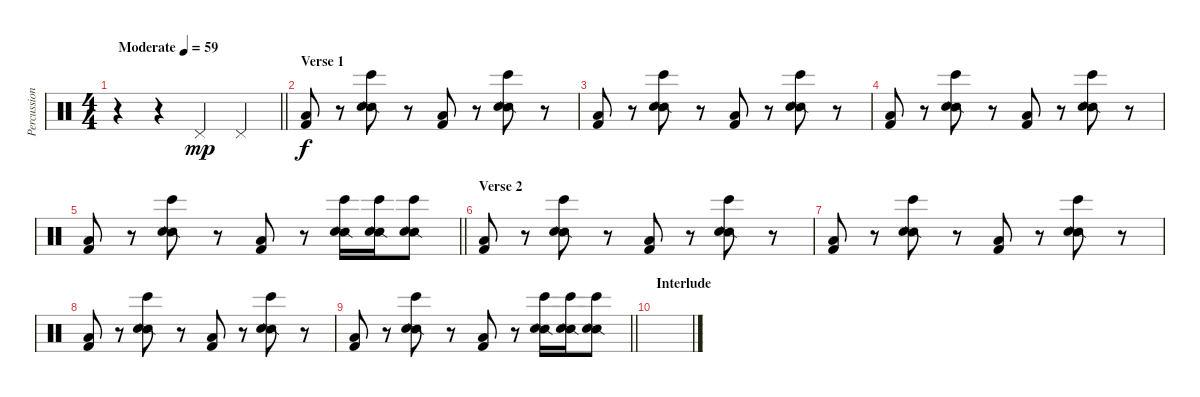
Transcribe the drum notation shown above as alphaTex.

\track ("Percussion" "Percussion") {instrument percussion}
\staff {score}
\articulation defaults
\ts (4 4)
\tempo (59 "Moderate")
\clef neutral
\barLineRight lightlight
\ks c
r.4{dy mp} r.4 "Pedal Hi-Hat (hit)".4 "Pedal Hi-Hat (hit)".4 |
\section ("" "Verse 1")
("Low Floor Tom (hit)" "Kick (hit) 2").8{dy f} r.8 ("Bongo High (hit)" "Snare (side stick) 2" "Hand Clap (hit)").8 r.8 ("Low Floor Tom (hit)" "Kick (hit) 2").8 r.8 ("Bongo High (hit)" "Snare (side stick) 2" "Hand Clap (hit)").8 r.8 |
("Low Floor Tom (hit)" "Kick (hit) 2").8 r.8 ("Bongo High (hit)" "Snare (side stick) 2" "Hand Clap (hit)").8 r.8 ("Low Floor Tom (hit)" "Kick (hit) 2").8 r.8 ("Bongo High (hit)" "Snare (side stick) 2" "Hand Clap (hit)").8 r.8 |
("Low Floor Tom (hit)" "Kick (hit) 2").8 r.8 ("Bongo High (hit)" "Snare (side stick) 2" "Hand Clap (hit)").8 r.8 ("Low Floor Tom (hit)" "Kick (hit) 2").8 r.8 ("Bongo High (hit)" "Snare (side stick) 2" "Hand Clap (hit)").8 r.8 |
\barLineRight lightlight
("Low Floor Tom (hit)" "Kick (hit) 2").8 r.8 ("Bongo High (hit)" "Snare (side stick) 2" "Hand Clap (hit)").8 r.8 ("Low Floor Tom (hit)" "Kick (hit) 2").8 r.8 ("Bongo High (hit)" "Snare (side stick) 2" "Hand Clap (hit)").16 ("Bongo High (hit)" "Snare (side stick) 2" "Hand Clap (hit)").16 ("Bongo High (hit)" "Snare (side stick) 2" "Hand Clap (hit)").8 |
\section ("" "Verse 2")
("Low Floor Tom (hit)" "Kick (hit) 2").8 r.8 ("Bongo High (hit)" "Snare (side stick) 2" "Hand Clap (hit)").8 r.8 ("Low Floor Tom (hit)" "Kick (hit) 2").8 r.8 ("Bongo High (hit)" "Snare (side stick) 2" "Hand Clap (hit)").8 r.8 |
("Low Floor Tom (hit)" "Kick (hit) 2").8 r.8 ("Bongo High (hit)" "Snare (side stick) 2" "Hand Clap (hit)").8 r.8 ("Low Floor Tom (hit)" "Kick (hit) 2").8 r.8 ("Bongo High (hit)" "Snare (side stick) 2" "Hand Clap (hit)").8 r.8 |
("Low Floor Tom (hit)" "Kick (hit) 2").8 r.8 ("Bongo High (hit)" "Snare (side stick) 2" "Hand Clap (hit)").8 r.8 ("Low Floor Tom (hit)" "Kick (hit) 2").8 r.8 ("Bongo High (hit)" "Snare (side stick) 2" "Hand Clap (hit)").8 r.8 |
\barLineRight lightlight
("Low Floor Tom (hit)" "Kick (hit) 2").8 r.8 ("Bongo High (hit)" "Snare (side stick) 2" "Hand Clap (hit)").8 r.8 ("Low Floor Tom (hit)" "Kick (hit) 2").8 r.8 ("Bongo High (hit)" "Snare (side stick) 2" "Hand Clap (hit)").16 ("Bongo High (hit)" "Snare (side stick) 2" "Hand Clap (hit)").16 ("Bongo High (hit)" "Snare (side stick) 2" "Hand Clap (hit)").8 |
\section ("" "Interlude")
